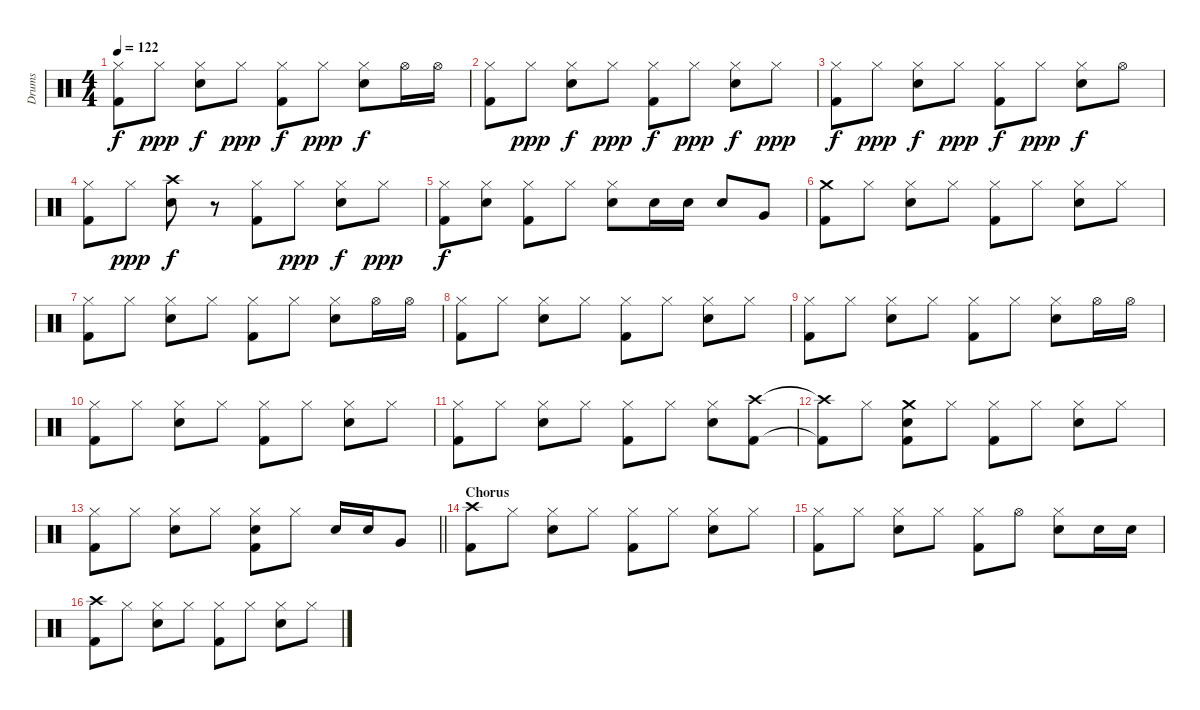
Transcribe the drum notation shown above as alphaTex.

\track ("Drums" "Drums") {instrument percussion}
\staff {score}
\articulation defaults
\ts (4 4)
\tempo 122
\clef neutral
\ks c
("Hi-Hat (closed)" "Kick (hit) 2").8{dy f} "Hi-Hat (closed)".8{dy ppp} ("Hi-Hat (closed)" "Electric Snare (hit)").8{dy f} "Hi-Hat (closed)".8{dy ppp} ("Hi-Hat (closed)" "Kick (hit) 2").8{dy f} "Hi-Hat (closed)".8{dy ppp} ("Hi-Hat (closed)" "Electric Snare (hit)").8{dy f} "Hi-Hat (open)".16 "Hi-Hat (open)".16 |
("Hi-Hat (closed)" "Kick (hit) 2").8 "Hi-Hat (closed)".8{dy ppp} ("Hi-Hat (closed)" "Electric Snare (hit)").8{dy f} "Hi-Hat (closed)".8{dy ppp} ("Hi-Hat (closed)" "Kick (hit) 2").8{dy f} "Hi-Hat (closed)".8{dy ppp} ("Hi-Hat (closed)" "Electric Snare (hit)").8{dy f} "Hi-Hat (closed)".8{dy ppp} |
("Hi-Hat (closed)" "Kick (hit) 2").8{dy f} "Hi-Hat (closed)".8{dy ppp} ("Hi-Hat (closed)" "Electric Snare (hit)").8{dy f} "Hi-Hat (closed)".8{dy ppp} ("Hi-Hat (closed)" "Kick (hit) 2").8{dy f} "Hi-Hat (closed)".8{dy ppp} ("Hi-Hat (closed)" "Electric Snare (hit)").8{dy f} "Hi-Hat (open)".8 |
("Hi-Hat (closed)" "Kick (hit) 2").8 "Hi-Hat (closed)".8{dy ppp} ("Crash high (hit)" "Electric Snare (hit)").8{dy f} r.8 ("Hi-Hat (closed)" "Kick (hit) 2").8 "Hi-Hat (closed)".8{dy ppp} ("Hi-Hat (closed)" "Electric Snare (hit)").8{dy f} "Hi-Hat (closed)".8{dy ppp} |
("Hi-Hat (closed)" "Kick (hit) 2").8{dy f} ("Hi-Hat (closed)" "Electric Snare (hit)").8 ("Hi-Hat (closed)" "Kick (hit) 2").8 "Hi-Hat (closed)".8 ("Hi-Hat (closed)" "Electric Snare (hit)").8 "Electric Snare (hit)".16 "Electric Snare (hit)".16 "Electric Snare (hit)".8 "Very Low Tom (hit)".8 |
("Crash medium (hit)" "Kick (hit) 2").8 "Hi-Hat (closed)".8 ("Hi-Hat (closed)" "Electric Snare (hit)").8 "Hi-Hat (closed)".8 ("Hi-Hat (closed)" "Kick (hit) 2").8 "Hi-Hat (closed)".8 ("Hi-Hat (closed)" "Electric Snare (hit)").8 "Hi-Hat (closed)".8 |
("Hi-Hat (closed)" "Kick (hit) 2").8 "Hi-Hat (closed)".8 ("Hi-Hat (closed)" "Electric Snare (hit)").8 "Hi-Hat (closed)".8 ("Hi-Hat (closed)" "Kick (hit) 2").8 "Hi-Hat (closed)".8 ("Hi-Hat (closed)" "Electric Snare (hit)").8 "Hi-Hat (open)".16 "Hi-Hat (open)".16 |
("Hi-Hat (closed)" "Kick (hit) 2").8 "Hi-Hat (closed)".8 ("Hi-Hat (closed)" "Electric Snare (hit)").8 "Hi-Hat (closed)".8 ("Hi-Hat (closed)" "Kick (hit) 2").8 "Hi-Hat (closed)".8 ("Hi-Hat (closed)" "Electric Snare (hit)").8 "Hi-Hat (closed)".8 |
("Hi-Hat (closed)" "Kick (hit) 2").8 "Hi-Hat (closed)".8 ("Hi-Hat (closed)" "Electric Snare (hit)").8 "Hi-Hat (closed)".8 ("Hi-Hat (closed)" "Kick (hit) 2").8 "Hi-Hat (closed)".8 ("Hi-Hat (closed)" "Electric Snare (hit)").8 "Hi-Hat (open)".16 "Hi-Hat (open)".16 |
("Hi-Hat (closed)" "Kick (hit) 2").8 "Hi-Hat (closed)".8 ("Hi-Hat (closed)" "Electric Snare (hit)").8 "Hi-Hat (closed)".8 ("Hi-Hat (closed)" "Kick (hit) 2").8 "Hi-Hat (closed)".8 ("Hi-Hat (closed)" "Electric Snare (hit)").8 "Hi-Hat (closed)".8 |
("Hi-Hat (closed)" "Kick (hit) 2").8 "Hi-Hat (closed)".8 ("Hi-Hat (closed)" "Electric Snare (hit)").8 "Hi-Hat (closed)".8 ("Hi-Hat (closed)" "Kick (hit) 2").8 "Hi-Hat (closed)".8 ("Hi-Hat (closed)" "Electric Snare (hit)").8 ("Crash high (hit)" "Kick (hit) 2").8 |
("Crash high (hit)"{t} "Kick (hit) 2"{t}).8 "Hi-Hat (closed)".8 ("Crash medium (hit)" "Electric Snare (hit)" "Kick (hit) 2").8 "Hi-Hat (closed)".8 ("Hi-Hat (closed)" "Kick (hit) 2").8 "Hi-Hat (closed)".8 ("Hi-Hat (closed)" "Electric Snare (hit)").8 "Hi-Hat (closed)".8 |
\barLineRight lightlight
("Hi-Hat (closed)" "Kick (hit) 2").8 "Hi-Hat (closed)".8 ("Hi-Hat (closed)" "Electric Snare (hit)").8 "Hi-Hat (closed)".8 ("Hi-Hat (closed)" "Electric Snare (hit)" "Kick (hit) 2").8 "Hi-Hat (closed)".8 "Electric Snare (hit)".16 "Electric Snare (hit)".16 "Very Low Tom (hit)".8 |
\section ("" "Chorus")
("Crash high (hit)" "Kick (hit) 2").8 "Hi-Hat (closed)".8 ("Hi-Hat (closed)" "Electric Snare (hit)").8 "Hi-Hat (closed)".8 ("Hi-Hat (closed)" "Kick (hit) 2").8 "Hi-Hat (closed)".8 ("Hi-Hat (closed)" "Electric Snare (hit)").8 "Hi-Hat (closed)".8 |
("Hi-Hat (closed)" "Kick (hit) 2").8 "Hi-Hat (closed)".8 ("Hi-Hat (closed)" "Electric Snare (hit)").8 "Hi-Hat (closed)".8 ("Hi-Hat (closed)" "Kick (hit) 2").8 "Hi-Hat (open)".8 ("Hi-Hat (closed)" "Electric Snare (hit)").8 "Electric Snare (hit)".16 "Electric Snare (hit)".16 |
("Crash high (hit)" "Kick (hit) 2").8 "Hi-Hat (closed)".8 ("Hi-Hat (closed)" "Electric Snare (hit)").8 "Hi-Hat (closed)".8 ("Hi-Hat (closed)" "Kick (hit) 2").8 "Hi-Hat (closed)".8 ("Hi-Hat (closed)" "Electric Snare (hit)").8 "Hi-Hat (closed)".8
